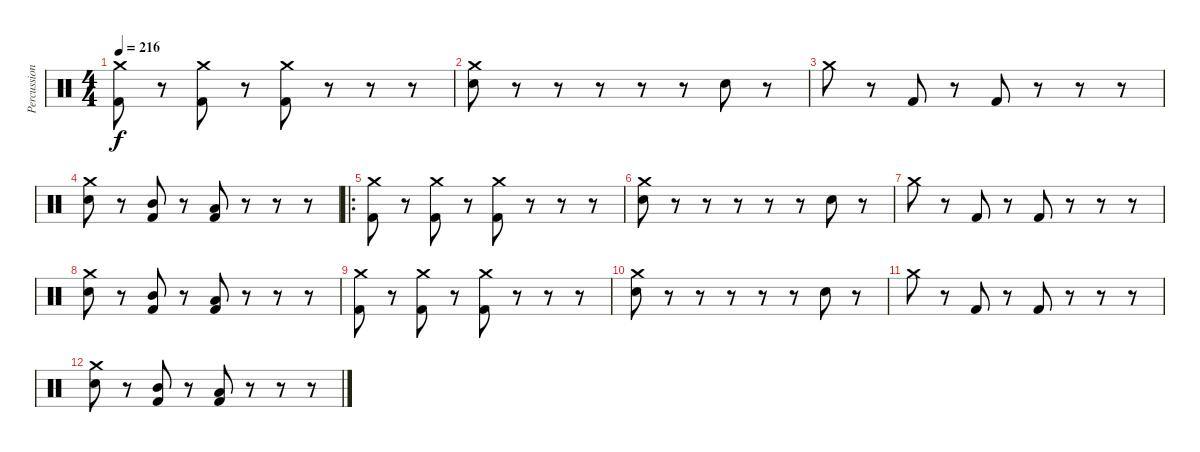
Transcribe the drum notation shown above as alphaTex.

\track ("Percussions" "Percussion") {instrument percussion}
\staff {score}
\articulation defaults
\ts (4 4)
\tempo 216
\clef neutral
\ks c
("Crash medium (hit)" "Kick (hit) 2").8{dy f} r.8 ("Crash medium (hit)" "Kick (hit) 2").8 r.8 ("Crash medium (hit)" "Kick (hit) 2").8 r.8 r.8 r.8 |
("Crash medium (hit)" "Electric Snare (hit)").8 r.8 r.8 r.8 r.8 r.8 "Electric Snare (hit)".8 r.8 |
"Crash medium (hit)".8 r.8 "Kick (hit) 2".8 r.8 "Kick (hit) 2".8 r.8 r.8 r.8 |
("Crash medium (hit)" "Electric Snare (hit)").8 r.8 ("Mid Tom (hit)" "Kick (hit) 2").8 r.8 ("Low Tom (hit)" "Kick (hit) 2").8 r.8 r.8 r.8 |
\ro
("Crash medium (hit)" "Kick (hit) 2").8 r.8 ("Crash medium (hit)" "Kick (hit) 2").8 r.8 ("Crash medium (hit)" "Kick (hit) 2").8 r.8 r.8 r.8 |
("Crash medium (hit)" "Electric Snare (hit)").8 r.8 r.8 r.8 r.8 r.8 "Electric Snare (hit)".8 r.8 |
"Crash medium (hit)".8 r.8 "Kick (hit) 2".8 r.8 "Kick (hit) 2".8 r.8 r.8 r.8 |
("Crash medium (hit)" "Electric Snare (hit)").8 r.8 ("Mid Tom (hit)" "Kick (hit) 2").8 r.8 ("Low Tom (hit)" "Kick (hit) 2").8 r.8 r.8 r.8 |
("Crash medium (hit)" "Kick (hit) 2").8 r.8 ("Crash medium (hit)" "Kick (hit) 2").8 r.8 ("Crash medium (hit)" "Kick (hit) 2").8 r.8 r.8 r.8 |
("Crash medium (hit)" "Electric Snare (hit)").8 r.8 r.8 r.8 r.8 r.8 "Electric Snare (hit)".8 r.8 |
"Crash medium (hit)".8 r.8 "Kick (hit) 2".8 r.8 "Kick (hit) 2".8 r.8 r.8 r.8 |
("Crash medium (hit)" "Electric Snare (hit)").8 r.8 ("Mid Tom (hit)" "Kick (hit) 2").8 r.8 ("Low Tom (hit)" "Kick (hit) 2").8 r.8 r.8 r.8
